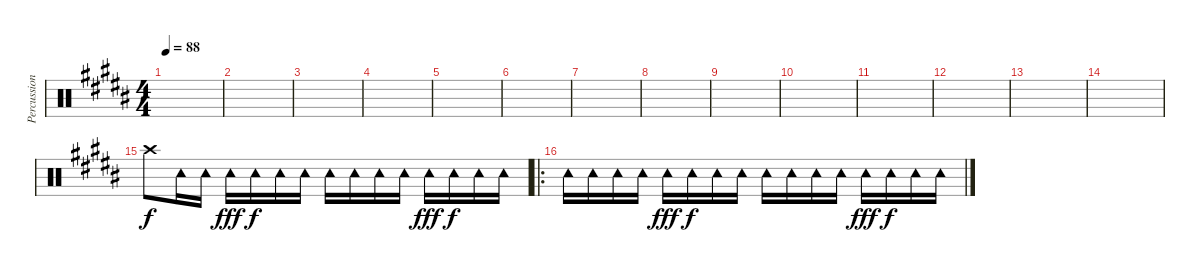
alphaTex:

\track ("Percussions" "Percussion") {instrument percussion}
\staff {score}
\articulation defaults
\ts (4 4)
\tempo 88
\clef neutral
\ks b
|
|
|
|
|
|
|
|
|
|
|
|
|
|
"Crash high (hit)".8 "Tambourine (hit)".16 "Tambourine (hit)".16 "Tambourine (hit)".16{dy fff} "Tambourine (hit)".16{dy f} "Tambourine (hit)".16 "Tambourine (hit)".16 "Tambourine (hit)".16 "Tambourine (hit)".16 "Tambourine (hit)".16 "Tambourine (hit)".16 "Tambourine (hit)".16{dy fff} "Tambourine (hit)".16{dy f} "Tambourine (hit)".16 "Tambourine (hit)".16 |
\ro "Tambourine (hit)".16 "Tambourine (hit)".16 "Tambourine (hit)".16 "Tambourine (hit)".16 "Tambourine (hit)".16{dy fff} "Tambourine (hit)".16{dy f} "Tambourine (hit)".16 "Tambourine (hit)".16 "Tambourine (hit)".16 "Tambourine (hit)".16 "Tambourine (hit)".16 "Tambourine (hit)".16 "Tambourine (hit)".16{dy fff} "Tambourine (hit)".16{dy f} "Tambourine (hit)".16 "Tambourine (hit)".16
